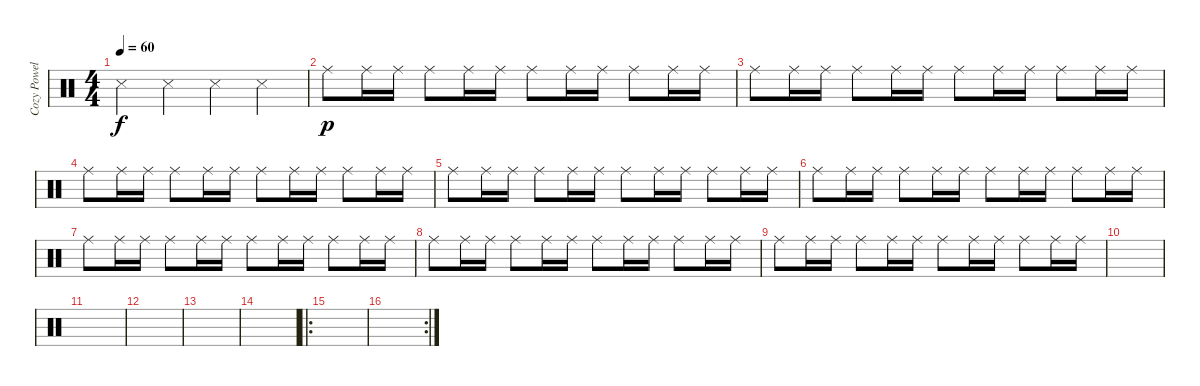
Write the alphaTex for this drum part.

\track ("Cozy Powell(Drums)" "Cozy Powel") {instrument percussion}
\staff {score}
\articulation defaults
\ts (4 4)
\tempo 60
\clef neutral
\ks c "Snare (side stick) 3".4{dy f} "Snare (side stick) 3".4 "Snare (side stick) 3".4 "Snare (side stick) 3".4
|
"Ride (middle)".8{dy p} "Ride (middle)".16 "Ride (middle)".16 "Ride (middle)".8 "Ride (middle)".16 "Ride (middle)".16 "Ride (middle)".8 "Ride (middle)".16 "Ride (middle)".16 "Ride (middle)".8 "Ride (middle)".16 "Ride (middle)".16 |
"Ride (middle)".8 "Ride (middle)".16 "Ride (middle)".16 "Ride (middle)".8 "Ride (middle)".16 "Ride (middle)".16 "Ride (middle)".8 "Ride (middle)".16 "Ride (middle)".16 "Ride (middle)".8 "Ride (middle)".16 "Ride (middle)".16 |
"Ride (middle)".8 "Ride (middle)".16 "Ride (middle)".16 "Ride (middle)".8 "Ride (middle)".16 "Ride (middle)".16 "Ride (middle)".8 "Ride (middle)".16 "Ride (middle)".16 "Ride (middle)".8 "Ride (middle)".16 "Ride (middle)".16 |
"Ride (middle)".8 "Ride (middle)".16 "Ride (middle)".16 "Ride (middle)".8 "Ride (middle)".16 "Ride (middle)".16 "Ride (middle)".8 "Ride (middle)".16 "Ride (middle)".16 "Ride (middle)".8 "Ride (middle)".16 "Ride (middle)".16 |
"Ride (middle)".8 "Ride (middle)".16 "Ride (middle)".16 "Ride (middle)".8 "Ride (middle)".16 "Ride (middle)".16 "Ride (middle)".8 "Ride (middle)".16 "Ride (middle)".16 "Ride (middle)".8 "Ride (middle)".16 "Ride (middle)".16 |
"Ride (middle)".8 "Ride (middle)".16 "Ride (middle)".16 "Ride (middle)".8 "Ride (middle)".16 "Ride (middle)".16 "Ride (middle)".8 "Ride (middle)".16 "Ride (middle)".16 "Ride (middle)".8 "Ride (middle)".16 "Ride (middle)".16 |
"Ride (middle)".8 "Ride (middle)".16 "Ride (middle)".16 "Ride (middle)".8 "Ride (middle)".16 "Ride (middle)".16 "Ride (middle)".8 "Ride (middle)".16 "Ride (middle)".16 "Ride (middle)".8 "Ride (middle)".16 "Ride (middle)".16 |
"Ride (middle)".8 "Ride (middle)".16 "Ride (middle)".16 "Ride (middle)".8 "Ride (middle)".16 "Ride (middle)".16 "Ride (middle)".8 "Ride (middle)".16 "Ride (middle)".16 "Ride (middle)".8 "Ride (middle)".16 "Ride (middle)".16 |
|
|
|
|
|
\ro
|
\rc 2
